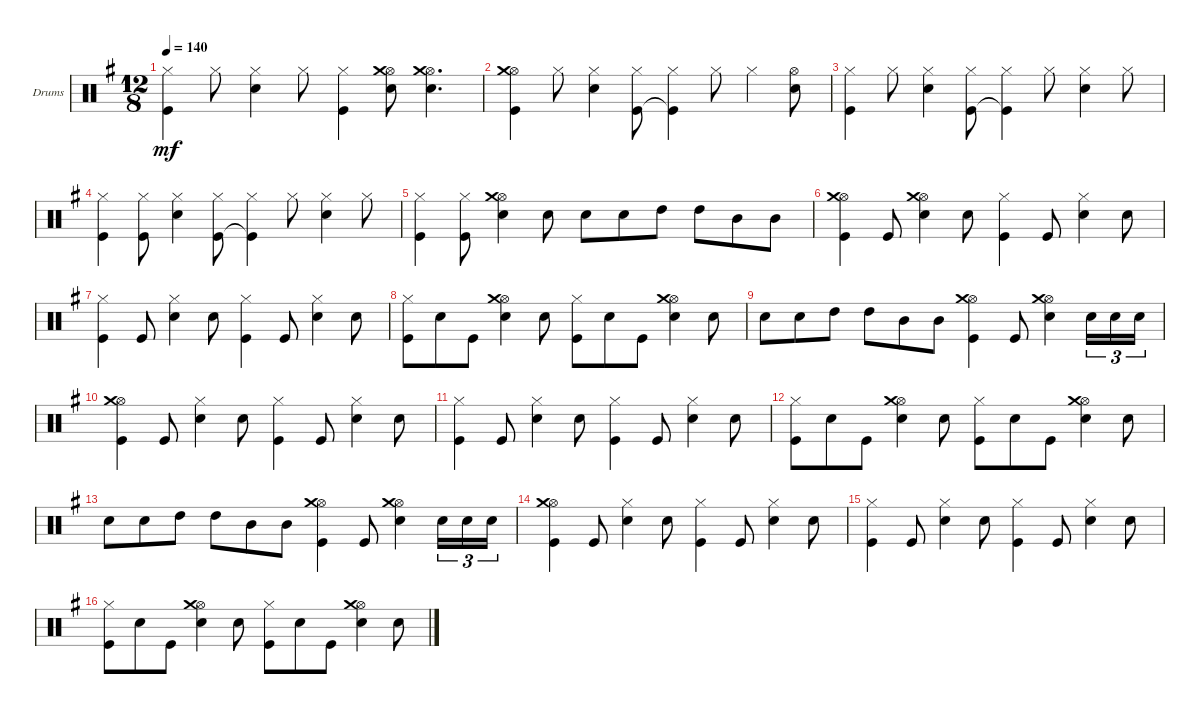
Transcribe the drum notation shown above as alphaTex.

\defaultSystemsLayout 4
\bracketExtendMode groupsimilarinstruments
\firstSystemTrackNameOrientation horizontal
\otherSystemsTrackNameOrientation horizontal
\track ("Drumkit" "Drums") {instrument percussion}
\staff {score}
\articulation defaults
\ts (12 8)
\tempo 140
\clef neutral
\ks g
("Hi-Hat (closed)" "Kick (hit)").4{dy mf} "Hi-Hat (closed)".8 ("Hi-Hat (closed)" "Snare (hit) 2").4 "Hi-Hat (closed)".8 ("Hi-Hat (closed)" "Kick (hit)").4 ("Hi-Hat (open)" "Snare (hit) 2" "Crash medium (hit)").8 ("Hi-Hat (open)" "Snare (hit) 2" "Crash medium (hit)").4{d} |
("Hi-Hat (open)" "Kick (hit)" "Crash medium (hit)").4 "Hi-Hat (closed)".8 ("Hi-Hat (closed)" "Snare (hit) 2").4 ("Hi-Hat (closed)" "Kick (hit)").8 ("Hi-Hat (closed)" "Kick (hit)"{t}).4 "Hi-Hat (closed)".8 "Hi-Hat (closed)".4 ("Hi-Hat (open)" "Snare (hit) 2").8 |
("Hi-Hat (closed)" "Kick (hit)").4 "Hi-Hat (closed)".8 ("Hi-Hat (closed)" "Snare (hit) 2").4 ("Hi-Hat (closed)" "Kick (hit)").8 ("Hi-Hat (closed)" "Kick (hit)"{t}).4 "Hi-Hat (closed)".8 ("Hi-Hat (closed)" "Snare (hit) 2").4 "Hi-Hat (closed)".8 |
("Hi-Hat (closed)" "Kick (hit)").4 ("Hi-Hat (closed)" "Kick (hit)").8 ("Hi-Hat (closed)" "Snare (hit) 2").4 ("Hi-Hat (closed)" "Kick (hit)").8 ("Hi-Hat (closed)" "Kick (hit)"{t}).4 "Hi-Hat (closed)".8 ("Hi-Hat (closed)" "Snare (hit) 2").4 "Hi-Hat (closed)".8 |
("Hi-Hat (closed)" "Kick (hit)").4 ("Hi-Hat (closed)" "Kick (hit)").8 ("Hi-Hat (open)" "Snare (hit) 2" "Crash medium (hit)").4 "Snare (hit) 2".8 "Snare (hit) 2".8 "Snare (hit) 2".8 "High Tom (hit)".8 "High Tom (hit)".8 "Mid Tom (hit)".8 "Mid Tom (hit)".8 |
("Hi-Hat (open)" "Kick (hit)" "Crash medium (hit)").4 "Kick (hit)".8 ("Hi-Hat (open)" "Snare (hit) 2" "Crash medium (hit)").4 "Snare (hit) 2".8 ("Hi-Hat (closed)" "Kick (hit)").4 "Kick (hit)".8 ("Hi-Hat (closed)" "Snare (hit) 2").4 "Snare (hit) 2".8 |
("Hi-Hat (closed)" "Kick (hit)").4 "Kick (hit)".8 ("Hi-Hat (closed)" "Snare (hit) 2").4 "Snare (hit) 2".8 ("Hi-Hat (closed)" "Kick (hit)").4 "Kick (hit)".8 ("Hi-Hat (closed)" "Snare (hit) 2").4 "Snare (hit) 2".8 |
("Hi-Hat (closed)" "Kick (hit)").8 "Snare (hit) 2".8 "Kick (hit)".8 ("Hi-Hat (open)" "Crash medium (hit)" "Snare (hit) 2").4 "Snare (hit) 2".8 ("Hi-Hat (closed)" "Kick (hit)").8 "Snare (hit) 2".8 "Kick (hit)".8 ("Hi-Hat (open)" "Snare (hit) 2" "Crash medium (hit)").4 "Snare (hit) 2".8 |
"Snare (hit) 2".8 "Snare (hit) 2".8 "High Tom (hit)".8 "High Tom (hit)".8 "Mid Tom (hit)".8 "Mid Tom (hit)".8 ("Hi-Hat (open)" "Kick (hit)" "Crash medium (hit)").4 "Kick (hit)".8 ("Snare (hit) 2" "Hi-Hat (open)" "Crash medium (hit)").4 "Snare (hit) 2".16{tu (3 2)} "Snare (hit) 2".16{tu (3 2)} "Snare (hit) 2".16{tu (3 2)} |
("Hi-Hat (open)" "Kick (hit)" "Crash medium (hit)").4 "Kick (hit)".8 ("Snare (hit) 2" "Hi-Hat (closed)").4 "Snare (hit) 2".8 ("Hi-Hat (closed)" "Kick (hit)").4 "Kick (hit)".8 ("Hi-Hat (closed)" "Snare (hit) 2").4 "Snare (hit) 2".8 |
("Hi-Hat (closed)" "Kick (hit)").4 "Kick (hit)".8 ("Hi-Hat (closed)" "Snare (hit) 2").4 "Snare (hit) 2".8 ("Hi-Hat (closed)" "Kick (hit)").4 "Kick (hit)".8 ("Hi-Hat (closed)" "Snare (hit) 2").4 "Snare (hit) 2".8 |
("Hi-Hat (closed)" "Kick (hit)").8 "Snare (hit) 2".8 "Kick (hit)".8 ("Hi-Hat (open)" "Crash medium (hit)" "Snare (hit) 2").4 "Snare (hit) 2".8 ("Hi-Hat (closed)" "Kick (hit)").8 "Snare (hit) 2".8 "Kick (hit)".8 ("Hi-Hat (open)" "Snare (hit) 2" "Crash medium (hit)").4 "Snare (hit) 2".8 |
"Snare (hit) 2".8 "Snare (hit) 2".8 "High Tom (hit)".8 "High Tom (hit)".8 "Mid Tom (hit)".8 "Mid Tom (hit)".8 ("Hi-Hat (open)" "Kick (hit)" "Crash medium (hit)").4 "Kick (hit)".8 ("Snare (hit) 2" "Hi-Hat (open)" "Crash medium (hit)").4 "Snare (hit) 2".16{tu (3 2)} "Snare (hit) 2".16{tu (3 2)} "Snare (hit) 2".16{tu (3 2)} |
("Hi-Hat (open)" "Kick (hit)" "Crash medium (hit)").4 "Kick (hit)".8 ("Snare (hit) 2" "Hi-Hat (closed)").4 "Snare (hit) 2".8 ("Hi-Hat (closed)" "Kick (hit)").4 "Kick (hit)".8 ("Hi-Hat (closed)" "Snare (hit) 2").4 "Snare (hit) 2".8 |
("Hi-Hat (closed)" "Kick (hit)").4 "Kick (hit)".8 ("Hi-Hat (closed)" "Snare (hit) 2").4 "Snare (hit) 2".8 ("Hi-Hat (closed)" "Kick (hit)").4 "Kick (hit)".8 ("Hi-Hat (closed)" "Snare (hit) 2").4 "Snare (hit) 2".8 |
("Hi-Hat (closed)" "Kick (hit)").8 "Snare (hit) 2".8 "Kick (hit)".8 ("Hi-Hat (open)" "Crash medium (hit)" "Snare (hit) 2").4 "Snare (hit) 2".8 ("Hi-Hat (closed)" "Kick (hit)").8 "Snare (hit) 2".8 "Kick (hit)".8 ("Hi-Hat (open)" "Snare (hit) 2" "Crash medium (hit)").4 "Snare (hit) 2".8
